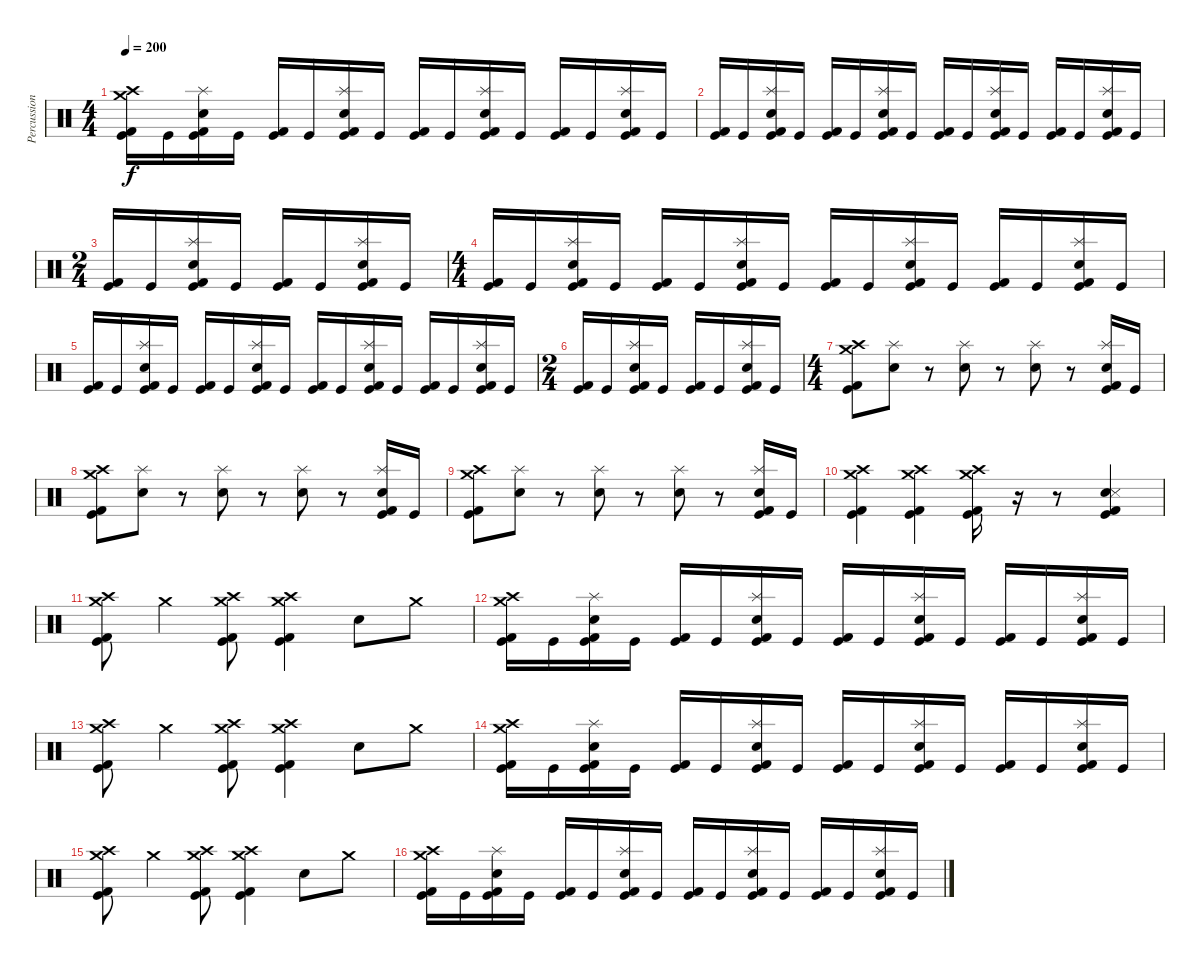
\track ("Percussion" "Percussion") {instrument percussion}
\staff {score}
\articulation defaults
\ts (4 4)
\tempo 200
\clef neutral
\ks c
("Crash high (hit)" "Crash medium (hit)" "Kick (hit) 2" "Kick (hit)").16{dy f} "Kick (hit)".16 ("Splash (hit)" "Snare (hit) 2" "Kick (hit) 2" "Kick (hit)").16 "Kick (hit)".16 ("Kick (hit) 2" "Kick (hit)").16 "Kick (hit)".16 ("Splash (hit)" "Snare (hit) 2" "Kick (hit) 2" "Kick (hit)").16 "Kick (hit)".16 ("Kick (hit) 2" "Kick (hit)").16 "Kick (hit)".16 ("Splash (hit)" "Snare (hit) 2" "Kick (hit) 2" "Kick (hit)").16 "Kick (hit)".16 ("Kick (hit) 2" "Kick (hit)").16 "Kick (hit)".16 ("Splash (hit)" "Snare (hit) 2" "Kick (hit) 2" "Kick (hit)").16 "Kick (hit)".16 |
("Kick (hit) 2" "Kick (hit)").16 "Kick (hit)".16 ("Splash (hit)" "Snare (hit) 2" "Kick (hit) 2" "Kick (hit)").16 "Kick (hit)".16 ("Kick (hit) 2" "Kick (hit)").16 "Kick (hit)".16 ("Splash (hit)" "Snare (hit) 2" "Kick (hit) 2" "Kick (hit)").16 "Kick (hit)".16 ("Kick (hit) 2" "Kick (hit)").16 "Kick (hit)".16 ("Splash (hit)" "Snare (hit) 2" "Kick (hit) 2" "Kick (hit)").16 "Kick (hit)".16 ("Kick (hit) 2" "Kick (hit)").16 "Kick (hit)".16 ("Splash (hit)" "Snare (hit) 2" "Kick (hit) 2" "Kick (hit)").16 "Kick (hit)".16 |
\ts (2 4)
("Kick (hit) 2" "Kick (hit)").16 "Kick (hit)".16 ("Splash (hit)" "Snare (hit) 2" "Kick (hit) 2" "Kick (hit)").16 "Kick (hit)".16 ("Kick (hit) 2" "Kick (hit)").16 "Kick (hit)".16 ("Splash (hit)" "Snare (hit) 2" "Kick (hit) 2" "Kick (hit)").16 "Kick (hit)".16 |
\ts (4 4)
("Kick (hit) 2" "Kick (hit)").16 "Kick (hit)".16 ("Splash (hit)" "Snare (hit) 2" "Kick (hit) 2" "Kick (hit)").16 "Kick (hit)".16 ("Kick (hit) 2" "Kick (hit)").16 "Kick (hit)".16 ("Splash (hit)" "Snare (hit) 2" "Kick (hit) 2" "Kick (hit)").16 "Kick (hit)".16 ("Kick (hit) 2" "Kick (hit)").16 "Kick (hit)".16 ("Splash (hit)" "Snare (hit) 2" "Kick (hit) 2" "Kick (hit)").16 "Kick (hit)".16 ("Kick (hit) 2" "Kick (hit)").16 "Kick (hit)".16 ("Splash (hit)" "Snare (hit) 2" "Kick (hit) 2" "Kick (hit)").16 "Kick (hit)".16 |
("Kick (hit) 2" "Kick (hit)").16 "Kick (hit)".16 ("Splash (hit)" "Snare (hit) 2" "Kick (hit) 2" "Kick (hit)").16 "Kick (hit)".16 ("Kick (hit) 2" "Kick (hit)").16 "Kick (hit)".16 ("Splash (hit)" "Snare (hit) 2" "Kick (hit) 2" "Kick (hit)").16 "Kick (hit)".16 ("Kick (hit) 2" "Kick (hit)").16 "Kick (hit)".16 ("Splash (hit)" "Snare (hit) 2" "Kick (hit) 2" "Kick (hit)").16 "Kick (hit)".16 ("Kick (hit) 2" "Kick (hit)").16 "Kick (hit)".16 ("Splash (hit)" "Snare (hit) 2" "Kick (hit) 2" "Kick (hit)").16 "Kick (hit)".16 |
\ts (2 4)
("Kick (hit) 2" "Kick (hit)").16 "Kick (hit)".16 ("Splash (hit)" "Snare (hit) 2" "Kick (hit) 2" "Kick (hit)").16 "Kick (hit)".16 ("Kick (hit) 2" "Kick (hit)").16 "Kick (hit)".16 ("Splash (hit)" "Snare (hit) 2" "Kick (hit) 2" "Kick (hit)").16 "Kick (hit)".16 |
\ts (4 4)
("Crash high (hit)" "Crash medium (hit)" "Kick (hit) 2" "Kick (hit)").8 ("Splash (hit)" "Snare (hit) 2").8 r.8 ("Splash (hit)" "Snare (hit) 2").8 r.8 ("Splash (hit)" "Snare (hit) 2").8 r.8 ("Splash (hit)" "Snare (hit) 2" "Kick (hit) 2" "Kick (hit)").16 "Kick (hit)".16 |
("Crash high (hit)" "Crash medium (hit)" "Kick (hit) 2" "Kick (hit)").8 ("Splash (hit)" "Snare (hit) 2").8 r.8 ("Splash (hit)" "Snare (hit) 2").8 r.8 ("Splash (hit)" "Snare (hit) 2").8 r.8 ("Splash (hit)" "Snare (hit) 2" "Kick (hit) 2" "Kick (hit)").16 "Kick (hit)".16 |
("Crash high (hit)" "Crash medium (hit)" "Kick (hit) 2" "Kick (hit)").8 ("Splash (hit)" "Snare (hit) 2").8 r.8 ("Splash (hit)" "Snare (hit) 2").8 r.8 ("Splash (hit)" "Snare (hit) 2").8 r.8 ("Splash (hit)" "Snare (hit) 2" "Kick (hit) 2" "Kick (hit)").16 "Kick (hit)".16 |
("Crash high (hit)" "Crash medium (hit)" "Kick (hit) 2" "Kick (hit)").4 ("Crash high (hit)" "Crash medium (hit)" "Kick (hit) 2" "Kick (hit)").4 ("Crash high (hit)" "Crash medium (hit)" "Kick (hit) 2" "Kick (hit)").16 r.16 r.8 ("Snare (hit) 2" "Snare (side stick) 3" "Kick (hit) 2" "Kick (hit)").4 |
("Crash high (hit)" "Crash medium (hit)" "Kick (hit) 2" "Kick (hit)").8 "Crash medium (hit)".4 ("Crash high (hit)" "Crash medium (hit)" "Kick (hit) 2" "Kick (hit)").8 ("Crash high (hit)" "Crash medium (hit)" "Kick (hit) 2" "Kick (hit)").4 "Snare (hit) 2".8 "Crash medium (hit)".8 |
("Crash high (hit)" "Crash medium (hit)" "Kick (hit) 2" "Kick (hit)").16 "Kick (hit)".16 ("Splash (hit)" "Snare (hit) 2" "Kick (hit) 2" "Kick (hit)").16 "Kick (hit)".16 ("Kick (hit) 2" "Kick (hit)").16 "Kick (hit)".16 ("Splash (hit)" "Snare (hit) 2" "Kick (hit) 2" "Kick (hit)").16 "Kick (hit)".16 ("Kick (hit) 2" "Kick (hit)").16 "Kick (hit)".16 ("Splash (hit)" "Snare (hit) 2" "Kick (hit) 2" "Kick (hit)").16 "Kick (hit)".16 ("Kick (hit) 2" "Kick (hit)").16 "Kick (hit)".16 ("Splash (hit)" "Snare (hit) 2" "Kick (hit) 2" "Kick (hit)").16 "Kick (hit)".16 |
("Crash high (hit)" "Crash medium (hit)" "Kick (hit) 2" "Kick (hit)").8 "Crash medium (hit)".4 ("Crash high (hit)" "Crash medium (hit)" "Kick (hit) 2" "Kick (hit)").8 ("Crash high (hit)" "Crash medium (hit)" "Kick (hit) 2" "Kick (hit)").4 "Snare (hit) 2".8 "Crash medium (hit)".8 |
("Crash high (hit)" "Crash medium (hit)" "Kick (hit) 2" "Kick (hit)").16 "Kick (hit)".16 ("Splash (hit)" "Snare (hit) 2" "Kick (hit) 2" "Kick (hit)").16 "Kick (hit)".16 ("Kick (hit) 2" "Kick (hit)").16 "Kick (hit)".16 ("Splash (hit)" "Snare (hit) 2" "Kick (hit) 2" "Kick (hit)").16 "Kick (hit)".16 ("Kick (hit) 2" "Kick (hit)").16 "Kick (hit)".16 ("Splash (hit)" "Snare (hit) 2" "Kick (hit) 2" "Kick (hit)").16 "Kick (hit)".16 ("Kick (hit) 2" "Kick (hit)").16 "Kick (hit)".16 ("Splash (hit)" "Snare (hit) 2" "Kick (hit) 2" "Kick (hit)").16 "Kick (hit)".16 |
("Crash high (hit)" "Crash medium (hit)" "Kick (hit) 2" "Kick (hit)").8 "Crash medium (hit)".4 ("Crash high (hit)" "Crash medium (hit)" "Kick (hit) 2" "Kick (hit)").8 ("Crash high (hit)" "Crash medium (hit)" "Kick (hit) 2" "Kick (hit)").4 "Snare (hit) 2".8 "Crash medium (hit)".8 |
("Crash high (hit)" "Crash medium (hit)" "Kick (hit) 2" "Kick (hit)").16 "Kick (hit)".16 ("Splash (hit)" "Snare (hit) 2" "Kick (hit) 2" "Kick (hit)").16 "Kick (hit)".16 ("Kick (hit) 2" "Kick (hit)").16 "Kick (hit)".16 ("Splash (hit)" "Snare (hit) 2" "Kick (hit) 2" "Kick (hit)").16 "Kick (hit)".16 ("Kick (hit) 2" "Kick (hit)").16 "Kick (hit)".16 ("Splash (hit)" "Snare (hit) 2" "Kick (hit) 2" "Kick (hit)").16 "Kick (hit)".16 ("Kick (hit) 2" "Kick (hit)").16 "Kick (hit)".16 ("Splash (hit)" "Snare (hit) 2" "Kick (hit) 2" "Kick (hit)").16 "Kick (hit)".16
